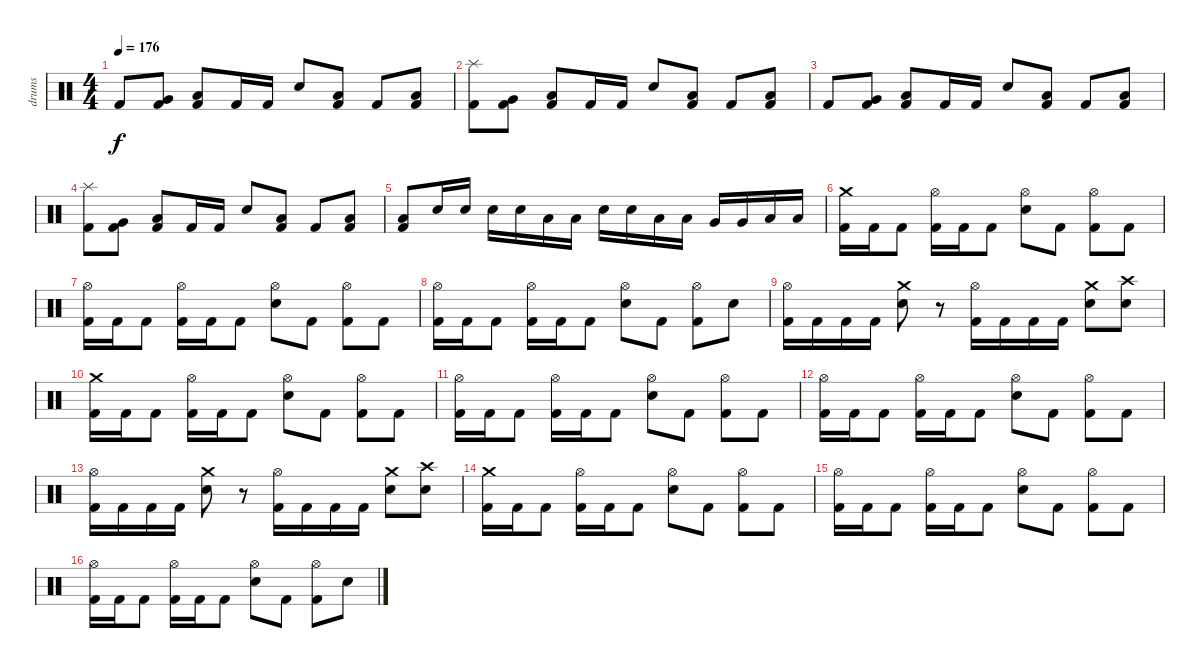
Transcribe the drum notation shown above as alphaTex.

\track ("drums" "drums") {instrument percussion}
\staff {score}
\articulation defaults
\ts (4 4)
\tempo 176
\clef neutral
\ks c "Kick (hit) 2".8{dy f}
("Very Low Tom (hit)" "Kick (hit) 2").8 ("Low Floor Tom (hit)" "Kick (hit) 2").8 "Kick (hit) 2".16 "Kick (hit) 2".16 "Snare (hit) 2".8 ("Low Floor Tom (hit)" "Kick (hit) 2").8 "Kick (hit) 2".8 ("Low Tom (hit)" "Kick (hit) 2").8 |
("Splash (hit)" "Kick (hit) 2").8 ("Very Low Tom (hit)" "Kick (hit) 2").8 ("Low Floor Tom (hit)" "Kick (hit) 2").8 "Kick (hit) 2".16 "Kick (hit) 2".16 "Snare (hit) 2".8 ("Low Floor Tom (hit)" "Kick (hit) 2").8 "Kick (hit) 2".8 ("Low Tom (hit)" "Kick (hit) 2").8 |
"Kick (hit) 2".8 ("Very Low Tom (hit)" "Kick (hit) 2").8 ("Low Floor Tom (hit)" "Kick (hit) 2").8 "Kick (hit) 2".16 "Kick (hit) 2".16 "Snare (hit) 2".8 ("Low Floor Tom (hit)" "Kick (hit) 2").8 "Kick (hit) 2".8 ("Low Tom (hit)" "Kick (hit) 2").8 |
("Splash (hit)" "Kick (hit) 2").8 ("Very Low Tom (hit)" "Kick (hit) 2").8 ("Low Floor Tom (hit)" "Kick (hit) 2").8 "Kick (hit) 2".16 "Kick (hit) 2".16 "Snare (hit) 2".8 ("Low Floor Tom (hit)" "Kick (hit) 2").8 "Kick (hit) 2".8 ("Low Tom (hit)" "Kick (hit) 2").8 |
("Low Floor Tom (hit)" "Kick (hit) 2").8 "Snare (hit) 2".16 "Snare (hit) 2".16 "Snare (hit) 2".16 "Snare (hit) 2".16 "Low Tom (hit)".16 "Low Tom (hit)".16 "Snare (hit) 2".16 "Snare (hit) 2".16 "Low Tom (hit)".16 "Low Tom (hit)".16 "Very Low Tom (hit)".16 "Very Low Tom (hit)".16 "Low Floor Tom (hit)".16 "Low Floor Tom (hit)".16 |
("Crash medium (hit)" "Kick (hit) 2").16 "Kick (hit) 2".16 "Kick (hit) 2".8 ("Hi-Hat (open)" "Kick (hit) 2").16 "Kick (hit) 2".16 "Kick (hit) 2".8 ("Hi-Hat (open)" "Snare (hit) 2").8 "Kick (hit) 2".8 ("Hi-Hat (open)" "Kick (hit) 2").8 "Kick (hit) 2".8 |
("Hi-Hat (open)" "Kick (hit) 2").16 "Kick (hit) 2".16 "Kick (hit) 2".8 ("Hi-Hat (open)" "Kick (hit) 2").16 "Kick (hit) 2".16 "Kick (hit) 2".8 ("Hi-Hat (open)" "Snare (hit) 2").8 "Kick (hit) 2".8 ("Hi-Hat (open)" "Kick (hit) 2").8 "Kick (hit) 2".8 |
("Hi-Hat (open)" "Kick (hit) 2").16 "Kick (hit) 2".16 "Kick (hit) 2".8 ("Hi-Hat (open)" "Kick (hit) 2").16 "Kick (hit) 2".16 "Kick (hit) 2".8 ("Hi-Hat (open)" "Snare (hit) 2").8 "Kick (hit) 2".8 ("Hi-Hat (open)" "Kick (hit) 2").8 "Snare (hit) 2".8 |
("Hi-Hat (open)" "Kick (hit) 2").16 "Kick (hit) 2".16 "Kick (hit) 2".16 "Kick (hit) 2".16 ("Crash medium (hit)" "Snare (hit) 2").8 r.8 ("Hi-Hat (open)" "Kick (hit) 2").16 "Kick (hit) 2".16 "Kick (hit) 2".16 "Kick (hit) 2".16 ("Crash medium (hit)" "Snare (hit) 2").8 ("Crash high (hit)" "Snare (hit) 2").8 |
("Crash medium (hit)" "Kick (hit) 2").16 "Kick (hit) 2".16 "Kick (hit) 2".8 ("Hi-Hat (open)" "Kick (hit) 2").16 "Kick (hit) 2".16 "Kick (hit) 2".8 ("Hi-Hat (open)" "Snare (hit) 2").8 "Kick (hit) 2".8 ("Hi-Hat (open)" "Kick (hit) 2").8 "Kick (hit) 2".8 |
("Hi-Hat (open)" "Kick (hit) 2").16 "Kick (hit) 2".16 "Kick (hit) 2".8 ("Hi-Hat (open)" "Kick (hit) 2").16 "Kick (hit) 2".16 "Kick (hit) 2".8 ("Hi-Hat (open)" "Snare (hit) 2").8 "Kick (hit) 2".8 ("Hi-Hat (open)" "Kick (hit) 2").8 "Kick (hit) 2".8 |
("Hi-Hat (open)" "Kick (hit) 2").16 "Kick (hit) 2".16 "Kick (hit) 2".8 ("Hi-Hat (open)" "Kick (hit) 2").16 "Kick (hit) 2".16 "Kick (hit) 2".8 ("Hi-Hat (open)" "Snare (hit) 2").8 "Kick (hit) 2".8 ("Hi-Hat (open)" "Kick (hit) 2").8 "Kick (hit) 2".8 |
("Hi-Hat (open)" "Kick (hit) 2").16 "Kick (hit) 2".16 "Kick (hit) 2".16 "Kick (hit) 2".16 ("Crash medium (hit)" "Snare (hit) 2").8 r.8 ("Hi-Hat (open)" "Kick (hit) 2").16 "Kick (hit) 2".16 "Kick (hit) 2".16 "Kick (hit) 2".16 ("Crash medium (hit)" "Snare (hit) 2").8 ("Crash high (hit)" "Snare (hit) 2").8 |
("Crash medium (hit)" "Kick (hit) 2").16 "Kick (hit) 2".16 "Kick (hit) 2".8 ("Hi-Hat (open)" "Kick (hit) 2").16 "Kick (hit) 2".16 "Kick (hit) 2".8 ("Hi-Hat (open)" "Snare (hit) 2").8 "Kick (hit) 2".8 ("Hi-Hat (open)" "Kick (hit) 2").8 "Kick (hit) 2".8 |
("Hi-Hat (open)" "Kick (hit) 2").16 "Kick (hit) 2".16 "Kick (hit) 2".8 ("Hi-Hat (open)" "Kick (hit) 2").16 "Kick (hit) 2".16 "Kick (hit) 2".8 ("Hi-Hat (open)" "Snare (hit) 2").8 "Kick (hit) 2".8 ("Hi-Hat (open)" "Kick (hit) 2").8 "Kick (hit) 2".8 |
("Hi-Hat (open)" "Kick (hit) 2").16 "Kick (hit) 2".16 "Kick (hit) 2".8 ("Hi-Hat (open)" "Kick (hit) 2").16 "Kick (hit) 2".16 "Kick (hit) 2".8 ("Hi-Hat (open)" "Snare (hit) 2").8 "Kick (hit) 2".8 ("Hi-Hat (open)" "Kick (hit) 2").8 "Snare (hit) 2".8
